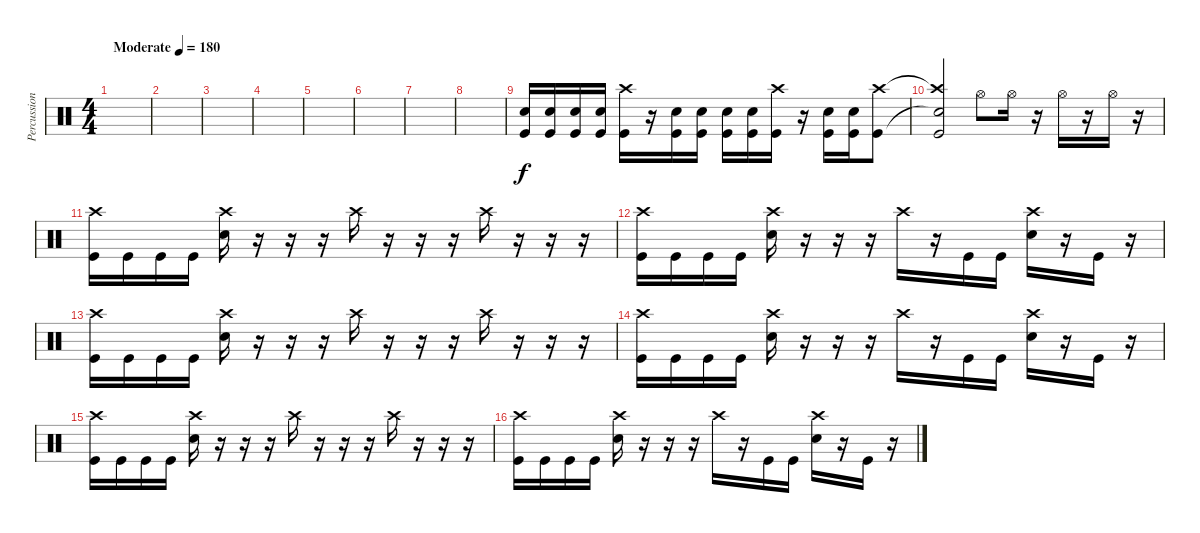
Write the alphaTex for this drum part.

\track ("Percussion" "Percussion") {instrument percussion}
\staff {score}
\articulation defaults
\ts (4 4)
\tempo (180 "Moderate")
\clef neutral
\ks c
|
|
|
|
|
|
|
|
("Electric Snare (hit)" "Kick (hit)").16 ("Electric Snare (hit)" "Kick (hit)").16 ("Electric Snare (hit)" "Kick (hit)").16 ("Electric Snare (hit)" "Kick (hit)").16 ("Crash high (hit)" "Kick (hit)").16 r.16 ("Electric Snare (hit)" "Kick (hit)").16 ("Electric Snare (hit)" "Kick (hit)").16 ("Electric Snare (hit)" "Kick (hit)").16 ("Electric Snare (hit)" "Kick (hit)").16 ("Crash high (hit)" "Kick (hit)").16 r.16 ("Electric Snare (hit)" "Kick (hit)").16 ("Electric Snare (hit)" "Kick (hit)").16 ("Crash high (hit)" "Kick (hit)").8 |
("Crash high (hit)"{t} "Snare (hit)"{t} "Kick (hit)").2 "Hi-Hat (open)".8 "Hi-Hat (open)".16 r.16 "Hi-Hat (open)".16 r.16 "Hi-Hat (open)".16 r.16 |
("Crash high (hit)" "Kick (hit)").16 "Kick (hit)".16 "Kick (hit)".16 "Kick (hit)".16 ("Crash high (hit)" "Electric Snare (hit)").16 r.16 r.16 r.16 "Crash high (hit)".16 r.16 r.16 r.16 "Crash high (hit)".16 r.16 r.16 r.16 |
("Crash high (hit)" "Kick (hit)").16 "Kick (hit)".16 "Kick (hit)".16 "Kick (hit)".16 ("Crash high (hit)" "Electric Snare (hit)").16 r.16 r.16 r.16 "Crash high (hit)".16 r.16 "Kick (hit)".16 "Kick (hit)".16 ("Crash high (hit)" "Electric Snare (hit)").16 r.16 "Kick (hit)".16 r.16 |
("Crash high (hit)" "Kick (hit)").16 "Kick (hit)".16 "Kick (hit)".16 "Kick (hit)".16 ("Crash high (hit)" "Electric Snare (hit)").16 r.16 r.16 r.16 "Crash high (hit)".16 r.16 r.16 r.16 "Crash high (hit)".16 r.16 r.16 r.16 |
("Crash high (hit)" "Kick (hit)").16 "Kick (hit)".16 "Kick (hit)".16 "Kick (hit)".16 ("Crash high (hit)" "Electric Snare (hit)").16 r.16 r.16 r.16 "Crash high (hit)".16 r.16 "Kick (hit)".16 "Kick (hit)".16 ("Crash high (hit)" "Electric Snare (hit)").16 r.16 "Kick (hit)".16 r.16 |
("Crash high (hit)" "Kick (hit)").16 "Kick (hit)".16 "Kick (hit)".16 "Kick (hit)".16 ("Crash high (hit)" "Electric Snare (hit)").16 r.16 r.16 r.16 "Crash high (hit)".16 r.16 r.16 r.16 "Crash high (hit)".16 r.16 r.16 r.16 |
("Crash high (hit)" "Kick (hit)").16 "Kick (hit)".16 "Kick (hit)".16 "Kick (hit)".16 ("Crash high (hit)" "Electric Snare (hit)").16 r.16 r.16 r.16 "Crash high (hit)".16 r.16 "Kick (hit)".16 "Kick (hit)".16 ("Crash high (hit)" "Electric Snare (hit)").16 r.16 "Kick (hit)".16 r.16
